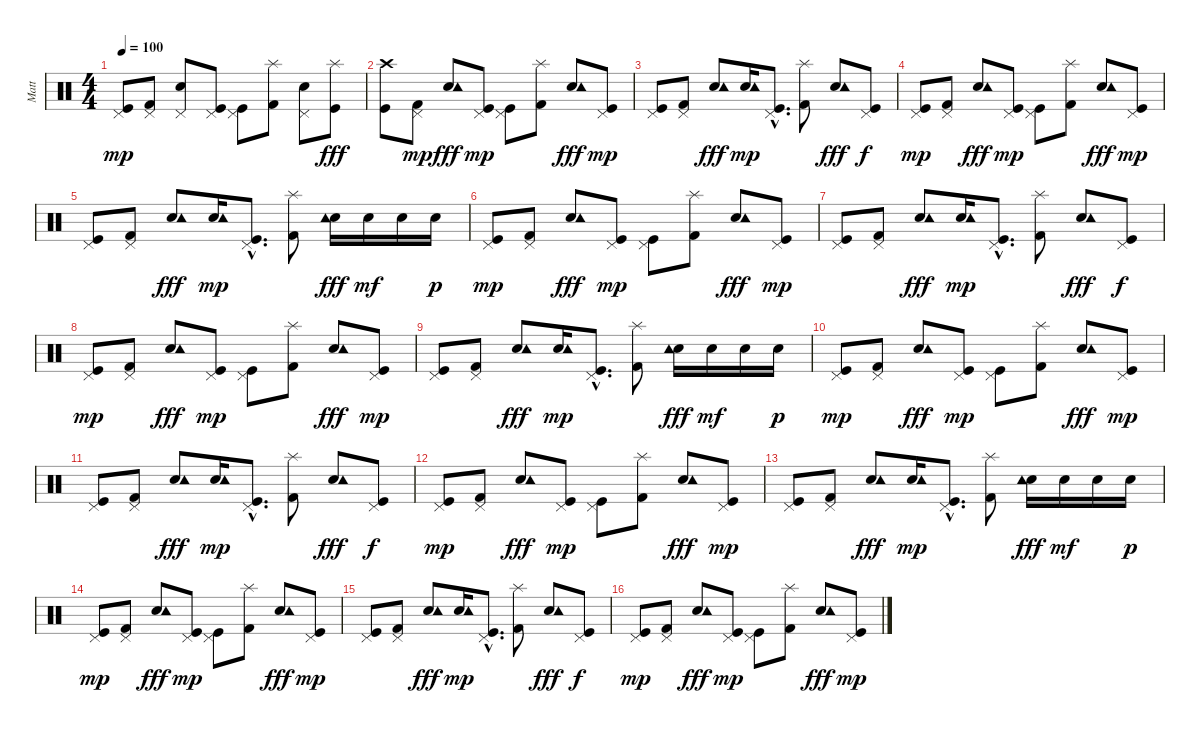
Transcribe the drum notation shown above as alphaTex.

\track ("Matt" "Matt") {instrument percussion}
\staff {score}
\articulation defaults
\ts (4 4)
\tempo 100
\clef neutral
\ks c
("Kick (hit)" "Pedal Hi-Hat (hit)").8{dy mp} ("Kick (hit) 2" "Pedal Hi-Hat (hit)").8 ("Electric Snare (hit)" "Pedal Hi-Hat (hit)").8 ("Kick (hit)" "Pedal Hi-Hat (hit)").8 ("Kick (hit)" "Pedal Hi-Hat (hit)").8 ("Kick (hit) 2" "Splash (hit)").8 ("Electric Snare (hit)" "Pedal Hi-Hat (hit)").8 ("Kick (hit)" "Splash (hit)").8{dy fff} |
("Kick (hit)" "Crash high (hit)").8 ("Kick (hit) 2" "Pedal Hi-Hat (hit)").8{dy mp} ("Electric Snare (hit)" "Tambourine (hit)").8{dy fff} ("Kick (hit)" "Pedal Hi-Hat (hit)").8{dy mp} ("Kick (hit)" "Pedal Hi-Hat (hit)").8 ("Kick (hit) 2" "Splash (hit)").8 ("Electric Snare (hit)" "Tambourine (hit)").8{dy fff} ("Kick (hit)" "Pedal Hi-Hat (hit)").8{dy mp} |
("Kick (hit)" "Pedal Hi-Hat (hit)").8 ("Kick (hit) 2" "Pedal Hi-Hat (hit)").8 ("Electric Snare (hit)" "Tambourine (hit)").8{dy fff} ("Electric Snare (hit)" "Tambourine (hit)").16{dy mp} ("Kick (hit)"{hac} "Pedal Hi-Hat (hit)"{hac}).8{d} ("Kick (hit) 2" "Splash (hit)").8 ("Electric Snare (hit)" "Tambourine (hit)").8{dy fff} ("Kick (hit)" "Pedal Hi-Hat (hit)").8{dy f} |
("Kick (hit)" "Pedal Hi-Hat (hit)").8{dy mp} ("Kick (hit) 2" "Pedal Hi-Hat (hit)").8 ("Electric Snare (hit)" "Tambourine (hit)").8{dy fff} ("Kick (hit)" "Pedal Hi-Hat (hit)").8{dy mp} ("Kick (hit)" "Pedal Hi-Hat (hit)").8 ("Kick (hit) 2" "Splash (hit)").8 ("Electric Snare (hit)" "Tambourine (hit)").8{dy fff} ("Kick (hit)" "Pedal Hi-Hat (hit)").8{dy mp} |
("Kick (hit)" "Pedal Hi-Hat (hit)").8 ("Kick (hit) 2" "Pedal Hi-Hat (hit)").8 ("Electric Snare (hit)" "Tambourine (hit)").8{dy fff} ("Electric Snare (hit)" "Tambourine (hit)").16{dy mp} ("Kick (hit)"{hac} "Pedal Hi-Hat (hit)"{hac}).8{d} ("Kick (hit) 2" "Splash (hit)").8 ("Electric Snare (hit)" "Tambourine (hit)").16{dy fff} "Electric Snare (hit)".16{dy mf} "Electric Snare (hit)".16 "Electric Snare (hit)".16{dy p} |
("Kick (hit)" "Pedal Hi-Hat (hit)").8{dy mp} ("Kick (hit) 2" "Pedal Hi-Hat (hit)").8 ("Electric Snare (hit)" "Tambourine (hit)").8{dy fff} ("Kick (hit)" "Pedal Hi-Hat (hit)").8{dy mp} ("Kick (hit)" "Pedal Hi-Hat (hit)").8 ("Kick (hit) 2" "Splash (hit)").8 ("Electric Snare (hit)" "Tambourine (hit)").8{dy fff} ("Kick (hit)" "Pedal Hi-Hat (hit)").8{dy mp} |
("Kick (hit)" "Pedal Hi-Hat (hit)").8 ("Kick (hit) 2" "Pedal Hi-Hat (hit)").8 ("Electric Snare (hit)" "Tambourine (hit)").8{dy fff} ("Electric Snare (hit)" "Tambourine (hit)").16{dy mp} ("Kick (hit)"{hac} "Pedal Hi-Hat (hit)"{hac}).8{d} ("Kick (hit) 2" "Splash (hit)").8 ("Electric Snare (hit)" "Tambourine (hit)").8{dy fff} ("Kick (hit)" "Pedal Hi-Hat (hit)").8{dy f} |
("Kick (hit)" "Pedal Hi-Hat (hit)").8{dy mp} ("Kick (hit) 2" "Pedal Hi-Hat (hit)").8 ("Electric Snare (hit)" "Tambourine (hit)").8{dy fff} ("Kick (hit)" "Pedal Hi-Hat (hit)").8{dy mp} ("Kick (hit)" "Pedal Hi-Hat (hit)").8 ("Kick (hit) 2" "Splash (hit)").8 ("Electric Snare (hit)" "Tambourine (hit)").8{dy fff} ("Kick (hit)" "Pedal Hi-Hat (hit)").8{dy mp} |
("Kick (hit)" "Pedal Hi-Hat (hit)").8 ("Kick (hit) 2" "Pedal Hi-Hat (hit)").8 ("Electric Snare (hit)" "Tambourine (hit)").8{dy fff} ("Electric Snare (hit)" "Tambourine (hit)").16{dy mp} ("Kick (hit)"{hac} "Pedal Hi-Hat (hit)"{hac}).8{d} ("Kick (hit) 2" "Splash (hit)").8 ("Electric Snare (hit)" "Tambourine (hit)").16{dy fff} "Electric Snare (hit)".16{dy mf} "Electric Snare (hit)".16 "Electric Snare (hit)".16{dy p} |
("Kick (hit)" "Pedal Hi-Hat (hit)").8{dy mp} ("Kick (hit) 2" "Pedal Hi-Hat (hit)").8 ("Electric Snare (hit)" "Tambourine (hit)").8{dy fff} ("Kick (hit)" "Pedal Hi-Hat (hit)").8{dy mp} ("Kick (hit)" "Pedal Hi-Hat (hit)").8 ("Kick (hit) 2" "Splash (hit)").8 ("Electric Snare (hit)" "Tambourine (hit)").8{dy fff} ("Kick (hit)" "Pedal Hi-Hat (hit)").8{dy mp} |
("Kick (hit)" "Pedal Hi-Hat (hit)").8 ("Kick (hit) 2" "Pedal Hi-Hat (hit)").8 ("Electric Snare (hit)" "Tambourine (hit)").8{dy fff} ("Electric Snare (hit)" "Tambourine (hit)").16{dy mp} ("Kick (hit)"{hac} "Pedal Hi-Hat (hit)"{hac}).8{d} ("Kick (hit) 2" "Splash (hit)").8 ("Electric Snare (hit)" "Tambourine (hit)").8{dy fff} ("Kick (hit)" "Pedal Hi-Hat (hit)").8{dy f} |
("Kick (hit)" "Pedal Hi-Hat (hit)").8{dy mp} ("Kick (hit) 2" "Pedal Hi-Hat (hit)").8 ("Electric Snare (hit)" "Tambourine (hit)").8{dy fff} ("Kick (hit)" "Pedal Hi-Hat (hit)").8{dy mp} ("Kick (hit)" "Pedal Hi-Hat (hit)").8 ("Kick (hit) 2" "Splash (hit)").8 ("Electric Snare (hit)" "Tambourine (hit)").8{dy fff} ("Kick (hit)" "Pedal Hi-Hat (hit)").8{dy mp} |
("Kick (hit)" "Pedal Hi-Hat (hit)").8 ("Kick (hit) 2" "Pedal Hi-Hat (hit)").8 ("Electric Snare (hit)" "Tambourine (hit)").8{dy fff} ("Electric Snare (hit)" "Tambourine (hit)").16{dy mp} ("Kick (hit)"{hac} "Pedal Hi-Hat (hit)"{hac}).8{d} ("Kick (hit) 2" "Splash (hit)").8 ("Electric Snare (hit)" "Tambourine (hit)").16{dy fff} "Electric Snare (hit)".16{dy mf} "Electric Snare (hit)".16 "Electric Snare (hit)".16{dy p} |
("Kick (hit)" "Pedal Hi-Hat (hit)").8{dy mp} ("Kick (hit) 2" "Pedal Hi-Hat (hit)").8 ("Electric Snare (hit)" "Tambourine (hit)").8{dy fff} ("Kick (hit)" "Pedal Hi-Hat (hit)").8{dy mp} ("Kick (hit)" "Pedal Hi-Hat (hit)").8 ("Kick (hit) 2" "Splash (hit)").8 ("Electric Snare (hit)" "Tambourine (hit)").8{dy fff} ("Kick (hit)" "Pedal Hi-Hat (hit)").8{dy mp} |
("Kick (hit)" "Pedal Hi-Hat (hit)").8 ("Kick (hit) 2" "Pedal Hi-Hat (hit)").8 ("Electric Snare (hit)" "Tambourine (hit)").8{dy fff} ("Electric Snare (hit)" "Tambourine (hit)").16{dy mp} ("Kick (hit)"{hac} "Pedal Hi-Hat (hit)"{hac}).8{d} ("Kick (hit) 2" "Splash (hit)").8 ("Electric Snare (hit)" "Tambourine (hit)").8{dy fff} ("Kick (hit)" "Pedal Hi-Hat (hit)").8{dy f} |
("Kick (hit)" "Pedal Hi-Hat (hit)").8{dy mp} ("Kick (hit) 2" "Pedal Hi-Hat (hit)").8 ("Electric Snare (hit)" "Tambourine (hit)").8{dy fff} ("Kick (hit)" "Pedal Hi-Hat (hit)").8{dy mp} ("Kick (hit)" "Pedal Hi-Hat (hit)").8 ("Kick (hit) 2" "Splash (hit)").8 ("Electric Snare (hit)" "Tambourine (hit)").8{dy fff} ("Kick (hit)" "Pedal Hi-Hat (hit)").8{dy mp}
